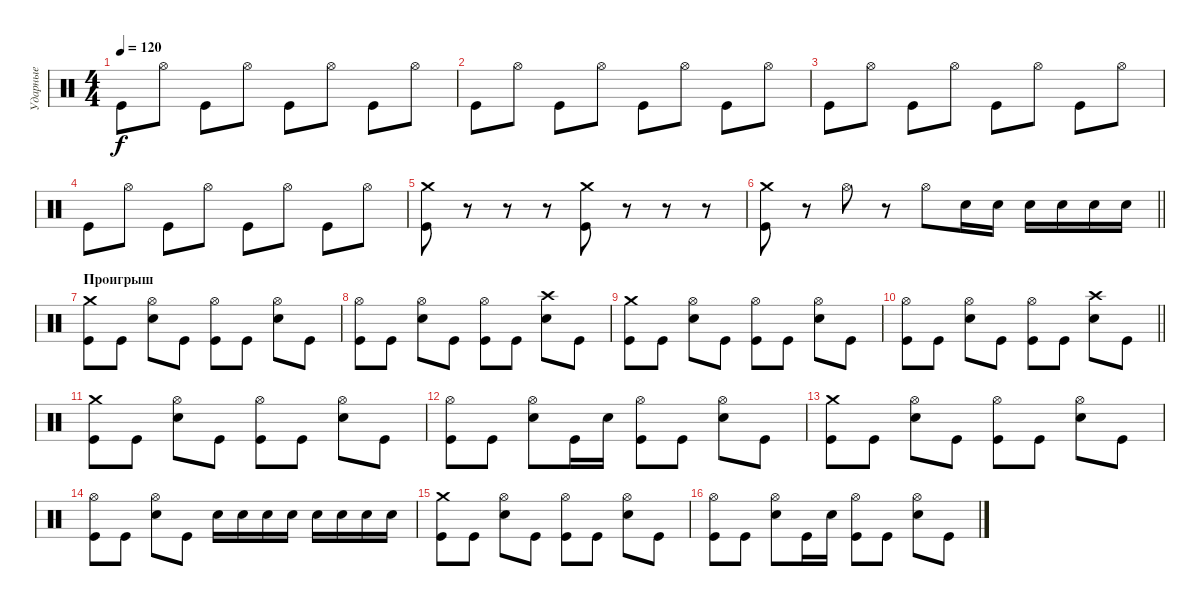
\track ("Ударные" "Ударные") {instrument percussion}
\staff {score}
\articulation defaults
\ts (4 4)
\tempo 120
\clef neutral
\ks c "Kick (hit)".8{dy f} "Hi-Hat (open)".8 "Kick (hit)".8 "Hi-Hat (open)".8 "Kick (hit)".8 "Hi-Hat (open)".8 "Kick (hit)".8 "Hi-Hat (open)".8
|
"Kick (hit)".8 "Hi-Hat (open)".8 "Kick (hit)".8 "Hi-Hat (open)".8 "Kick (hit)".8 "Hi-Hat (open)".8 "Kick (hit)".8 "Hi-Hat (open)".8 |
"Kick (hit)".8 "Hi-Hat (open)".8 "Kick (hit)".8 "Hi-Hat (open)".8 "Kick (hit)".8 "Hi-Hat (open)".8 "Kick (hit)".8 "Hi-Hat (open)".8 |
"Kick (hit)".8 "Hi-Hat (open)".8 "Kick (hit)".8 "Hi-Hat (open)".8 "Kick (hit)".8 "Hi-Hat (open)".8 "Kick (hit)".8 "Hi-Hat (open)".8 |
("Crash medium (hit)" "Kick (hit)").8 r.8 r.8 r.8 ("Crash medium (hit)" "Kick (hit)").8 r.8 r.8 r.8 |
\barLineRight lightlight
("Crash medium (hit)" "Kick (hit)").8 r.8 "Hi-Hat (open)".8 r.8 "Hi-Hat (open)".8 "Electric Snare (hit)".16 "Electric Snare (hit)".16 "Electric Snare (hit)".16 "Electric Snare (hit)".16 "Electric Snare (hit)".16 "Electric Snare (hit)".16 |
\section ("" "Проигрыш")
("Crash medium (hit)" "Kick (hit)").8 "Kick (hit)".8 ("Hi-Hat (open)" "Electric Snare (hit)").8 "Kick (hit)".8 ("Hi-Hat (open)" "Kick (hit)").8 "Kick (hit)".8 ("Hi-Hat (open)" "Electric Snare (hit)").8 "Kick (hit)".8 |
("Hi-Hat (open)" "Kick (hit)").8 "Kick (hit)".8 ("Hi-Hat (open)" "Electric Snare (hit)").8 "Kick (hit)".8 ("Hi-Hat (open)" "Kick (hit)").8 "Kick (hit)".8 ("Crash high (hit)" "Electric Snare (hit)").8 "Kick (hit)".8 |
("Crash medium (hit)" "Kick (hit)").8 "Kick (hit)".8 ("Hi-Hat (open)" "Electric Snare (hit)").8 "Kick (hit)".8 ("Hi-Hat (open)" "Kick (hit)").8 "Kick (hit)".8 ("Hi-Hat (open)" "Electric Snare (hit)").8 "Kick (hit)".8 |
\barLineRight lightlight
("Hi-Hat (open)" "Kick (hit)").8 "Kick (hit)".8 ("Hi-Hat (open)" "Electric Snare (hit)").8 "Kick (hit)".8 ("Hi-Hat (open)" "Kick (hit)").8 "Kick (hit)".8 ("Crash high (hit)" "Electric Snare (hit)").8 "Kick (hit)".8 |
\section ("" " ")
("Crash medium (hit)" "Kick (hit)").8 "Kick (hit)".8 ("Hi-Hat (open)" "Electric Snare (hit)").8 "Kick (hit)".8 ("Hi-Hat (open)" "Kick (hit)").8 "Kick (hit)".8 ("Hi-Hat (open)" "Electric Snare (hit)").8 "Kick (hit)".8 |
("Hi-Hat (open)" "Kick (hit)").8 "Kick (hit)".8 ("Hi-Hat (open)" "Electric Snare (hit)").8 "Kick (hit)".16 "Electric Snare (hit)".16 ("Hi-Hat (open)" "Kick (hit)").8 "Kick (hit)".8 ("Hi-Hat (open)" "Electric Snare (hit)").8 "Kick (hit)".8 |
("Crash medium (hit)" "Kick (hit)").8 "Kick (hit)".8 ("Hi-Hat (open)" "Electric Snare (hit)").8 "Kick (hit)".8 ("Hi-Hat (open)" "Kick (hit)").8 "Kick (hit)".8 ("Hi-Hat (open)" "Electric Snare (hit)").8 "Kick (hit)".8 |
("Hi-Hat (open)" "Kick (hit)").8 "Kick (hit)".8 ("Hi-Hat (open)" "Electric Snare (hit)").8 "Kick (hit)".8 "Electric Snare (hit)".16 "Electric Snare (hit)".16 "Electric Snare (hit)".16 "Electric Snare (hit)".16 "Electric Snare (hit)".16 "Electric Snare (hit)".16 "Electric Snare (hit)".16 "Electric Snare (hit)".16 |
("Crash medium (hit)" "Kick (hit)").8 "Kick (hit)".8 ("Hi-Hat (open)" "Electric Snare (hit)").8 "Kick (hit)".8 ("Hi-Hat (open)" "Kick (hit)").8 "Kick (hit)".8 ("Hi-Hat (open)" "Electric Snare (hit)").8 "Kick (hit)".8 |
("Hi-Hat (open)" "Kick (hit)").8 "Kick (hit)".8 ("Hi-Hat (open)" "Electric Snare (hit)").8 "Kick (hit)".16 "Electric Snare (hit)".16 ("Hi-Hat (open)" "Kick (hit)").8 "Kick (hit)".8 ("Hi-Hat (open)" "Electric Snare (hit)").8 "Kick (hit)".8
